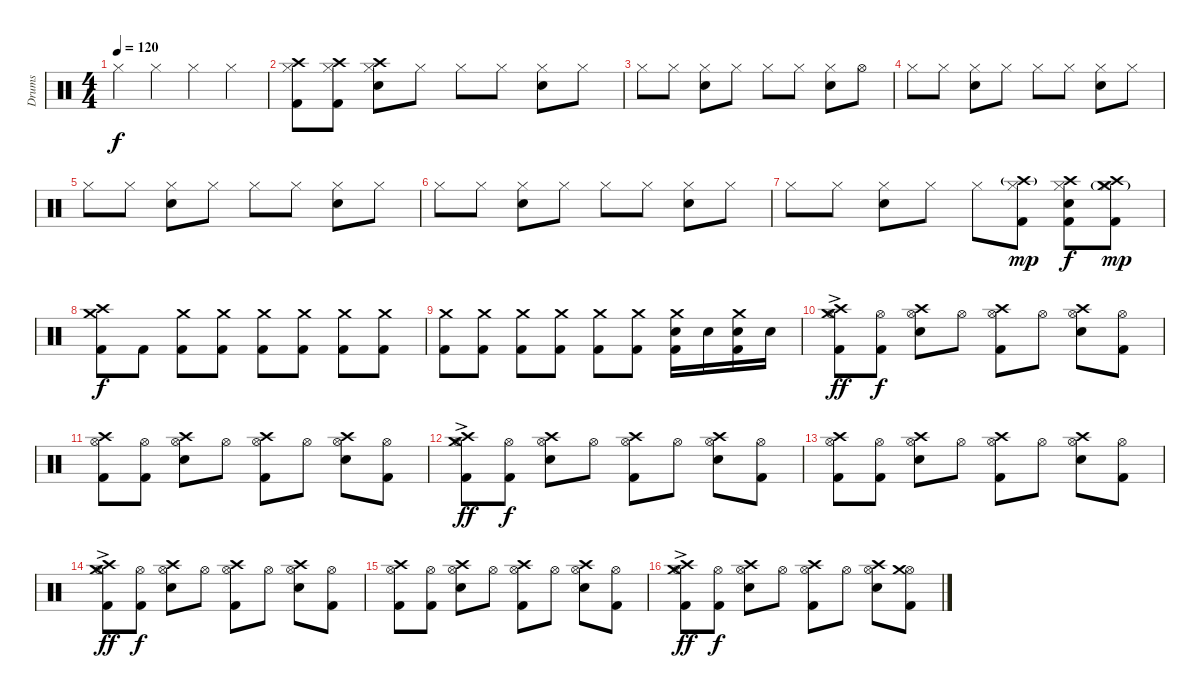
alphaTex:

\track ("Drums" "Drums") {instrument percussion}
\staff {score}
\articulation defaults
\ts (4 4)
\tempo 120
\clef neutral
\ks c "Hi-Hat (closed)".4{dy f} "Hi-Hat (closed)".4 "Hi-Hat (closed)".4 "Hi-Hat (closed)".4
|
("Hi-Hat (closed)" "Crash high (hit)" "Kick (hit) 2").8 ("Hi-Hat (closed)" "Crash high (hit)" "Kick (hit) 2").8 ("Hi-Hat (closed)" "Crash high (hit)" "Electric Snare (hit)").8 "Hi-Hat (closed)".8 "Hi-Hat (closed)".8 "Hi-Hat (closed)".8 ("Hi-Hat (closed)" "Electric Snare (hit)").8 "Hi-Hat (closed)".8 |
"Hi-Hat (closed)".8 "Hi-Hat (closed)".8 ("Hi-Hat (closed)" "Electric Snare (hit)").8 "Hi-Hat (closed)".8 "Hi-Hat (closed)".8 "Hi-Hat (closed)".8 ("Hi-Hat (closed)" "Electric Snare (hit)").8 "Hi-Hat (open)".8 |
"Hi-Hat (closed)".8 "Hi-Hat (closed)".8 ("Hi-Hat (closed)" "Electric Snare (hit)").8 "Hi-Hat (closed)".8 "Hi-Hat (closed)".8 "Hi-Hat (closed)".8 ("Hi-Hat (closed)" "Electric Snare (hit)").8 "Hi-Hat (closed)".8 |
"Hi-Hat (closed)".8 "Hi-Hat (closed)".8 ("Hi-Hat (closed)" "Electric Snare (hit)").8 "Hi-Hat (closed)".8 "Hi-Hat (closed)".8 "Hi-Hat (closed)".8 ("Hi-Hat (closed)" "Electric Snare (hit)").8 "Hi-Hat (closed)".8 |
"Hi-Hat (closed)".8 "Hi-Hat (closed)".8 ("Hi-Hat (closed)" "Electric Snare (hit)").8 "Hi-Hat (closed)".8 "Hi-Hat (closed)".8 "Hi-Hat (closed)".8 ("Hi-Hat (closed)" "Electric Snare (hit)").8 "Hi-Hat (closed)".8 |
"Hi-Hat (closed)".8 "Hi-Hat (closed)".8 ("Hi-Hat (closed)" "Electric Snare (hit)").8 "Hi-Hat (closed)".8 "Hi-Hat (closed)".8 ("Hi-Hat (closed)" "Crash high (hit)"{g} "Kick (hit) 2").8{dy mp} ("Hi-Hat (closed)" "Crash high (hit)" "Electric Snare (hit)" "Kick (hit) 2").8{dy f} ("Hi-Hat (closed)" "Crash high (hit)" "Crash medium (hit)"{g} "Kick (hit) 2").8{dy mp} |
("Crash high (hit)" "Crash medium (hit)" "Kick (hit) 2").8{dy f} "Kick (hit) 2".8{volume 2} ("Crash medium (hit)" "Kick (hit) 2").8{volume 13} ("Crash medium (hit)" "Kick (hit) 2").8 ("Crash medium (hit)" "Kick (hit) 2").8 ("Crash medium (hit)" "Kick (hit) 2").8 ("Crash medium (hit)" "Kick (hit) 2").8 ("Crash medium (hit)" "Kick (hit) 2").8 |
("Crash medium (hit)" "Kick (hit) 2").8 ("Crash medium (hit)" "Kick (hit) 2").8 ("Crash medium (hit)" "Kick (hit) 2").8 ("Crash medium (hit)" "Kick (hit) 2").8 ("Crash medium (hit)" "Kick (hit) 2").8 ("Crash medium (hit)" "Kick (hit) 2").8 ("Crash medium (hit)" "Electric Snare (hit)" "Kick (hit) 2").16 "Electric Snare (hit)".16 ("Crash medium (hit)" "Electric Snare (hit)" "Kick (hit) 2").16 "Electric Snare (hit)".16 |
("Crash high (hit)" "Hi-Hat (open)" "Crash medium (hit)"{ac} "Kick (hit) 2").8{dy ff} ("Hi-Hat (open)" "Kick (hit) 2").8{dy f} ("Crash high (hit)" "Hi-Hat (open)" "Electric Snare (hit)").8 "Hi-Hat (open)".8 ("Crash high (hit)" "Hi-Hat (open)" "Kick (hit) 2").8 "Hi-Hat (open)".8 ("Crash high (hit)" "Hi-Hat (open)" "Electric Snare (hit)").8 ("Hi-Hat (open)" "Kick (hit) 2").8 |
("Crash high (hit)" "Hi-Hat (open)" "Kick (hit) 2").8 ("Hi-Hat (open)" "Kick (hit) 2").8 ("Crash high (hit)" "Hi-Hat (open)" "Electric Snare (hit)").8 "Hi-Hat (open)".8 ("Crash high (hit)" "Hi-Hat (open)" "Kick (hit) 2").8 "Hi-Hat (open)".8 ("Crash high (hit)" "Hi-Hat (open)" "Electric Snare (hit)").8 ("Hi-Hat (open)" "Kick (hit) 2").8 |
("Crash high (hit)" "Hi-Hat (open)" "Crash medium (hit)"{ac} "Kick (hit) 2").8{dy ff} ("Hi-Hat (open)" "Kick (hit) 2").8{dy f} ("Crash high (hit)" "Hi-Hat (open)" "Electric Snare (hit)").8 "Hi-Hat (open)".8 ("Crash high (hit)" "Hi-Hat (open)" "Kick (hit) 2").8 "Hi-Hat (open)".8 ("Crash high (hit)" "Hi-Hat (open)" "Electric Snare (hit)").8 ("Hi-Hat (open)" "Kick (hit) 2").8 |
("Crash high (hit)" "Hi-Hat (open)" "Kick (hit) 2").8 ("Hi-Hat (open)" "Kick (hit) 2").8 ("Crash high (hit)" "Hi-Hat (open)" "Electric Snare (hit)").8 "Hi-Hat (open)".8 ("Crash high (hit)" "Hi-Hat (open)" "Kick (hit) 2").8 "Hi-Hat (open)".8 ("Crash high (hit)" "Hi-Hat (open)" "Electric Snare (hit)").8 ("Hi-Hat (open)" "Kick (hit) 2").8 |
("Crash high (hit)" "Hi-Hat (open)" "Crash medium (hit)"{ac} "Kick (hit) 2").8{dy ff} ("Hi-Hat (open)" "Kick (hit) 2").8{dy f} ("Crash high (hit)" "Hi-Hat (open)" "Electric Snare (hit)").8 "Hi-Hat (open)".8 ("Crash high (hit)" "Hi-Hat (open)" "Kick (hit) 2").8 "Hi-Hat (open)".8 ("Crash high (hit)" "Hi-Hat (open)" "Electric Snare (hit)").8 ("Hi-Hat (open)" "Kick (hit) 2").8 |
("Crash high (hit)" "Hi-Hat (open)" "Kick (hit) 2").8 ("Hi-Hat (open)" "Kick (hit) 2").8 ("Crash high (hit)" "Hi-Hat (open)" "Electric Snare (hit)").8 "Hi-Hat (open)".8 ("Crash high (hit)" "Hi-Hat (open)" "Kick (hit) 2").8 "Hi-Hat (open)".8 ("Crash high (hit)" "Hi-Hat (open)" "Electric Snare (hit)").8 ("Hi-Hat (open)" "Kick (hit) 2").8 |
("Crash high (hit)" "Hi-Hat (open)" "Crash medium (hit)"{ac} "Kick (hit) 2").8{dy ff} ("Hi-Hat (open)" "Kick (hit) 2").8{dy f} ("Crash high (hit)" "Hi-Hat (open)" "Electric Snare (hit)").8 "Hi-Hat (open)".8 ("Crash high (hit)" "Hi-Hat (open)" "Kick (hit) 2").8 "Hi-Hat (open)".8 ("Crash high (hit)" "Hi-Hat (open)" "Electric Snare (hit)").8 ("Hi-Hat (open)" "Crash medium (hit)" "Kick (hit) 2").8
